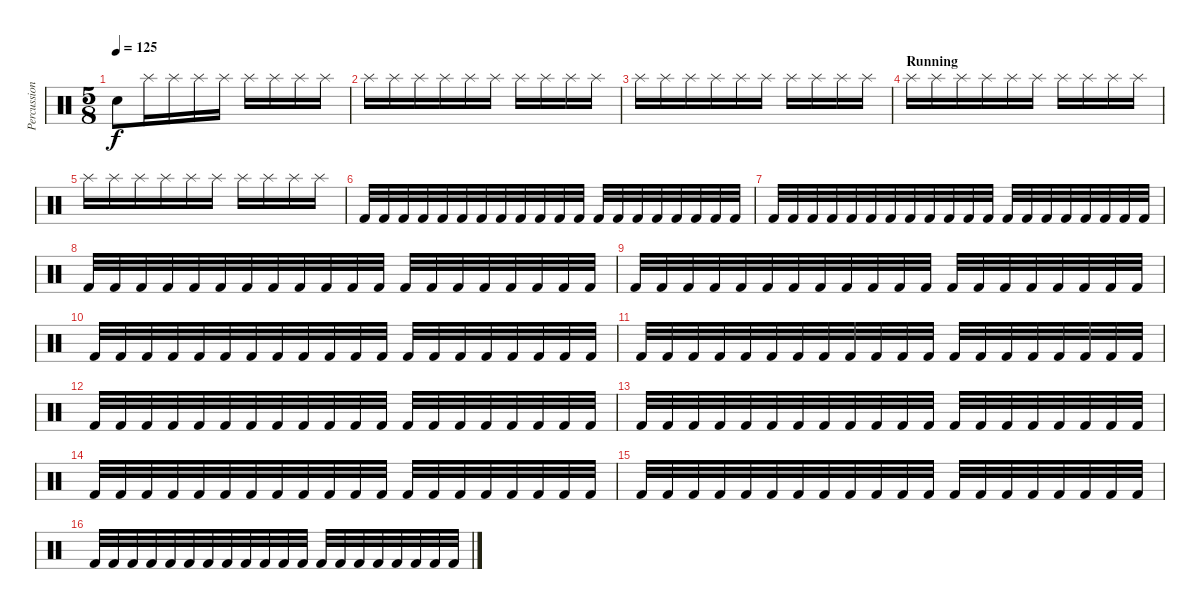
\track ("Percussion" "Percussion") {instrument percussion}
\staff {score}
\articulation defaults
\ts (5 8)
\tempo 125
\clef neutral
\ks c "Snare (hit)"{t}.8{dy f} "Splash (hit)".16 "Splash (hit)".16 "Splash (hit)".16 "Splash (hit)".16 "Splash (hit)".16 "Splash (hit)".16 "Splash (hit)".16 "Splash (hit)".16
|
"Splash (hit)".16 "Splash (hit)".16 "Splash (hit)".16 "Splash (hit)".16 "Splash (hit)".16 "Splash (hit)".16 "Splash (hit)".16 "Splash (hit)".16 "Splash (hit)".16 "Splash (hit)".16 |
"Splash (hit)".16 "Splash (hit)".16 "Splash (hit)".16 "Splash (hit)".16 "Splash (hit)".16 "Splash (hit)".16 "Splash (hit)".16 "Splash (hit)".16 "Splash (hit)".16 "Splash (hit)".16 |
\section ("" "Running")
"Splash (hit)".16 "Splash (hit)".16 "Splash (hit)".16 "Splash (hit)".16 "Splash (hit)".16 "Splash (hit)".16 "Splash (hit)".16 "Splash (hit)".16 "Splash (hit)".16 "Splash (hit)".16 |
"Splash (hit)".16 "Splash (hit)".16 "Splash (hit)".16 "Splash (hit)".16 "Splash (hit)".16 "Splash (hit)".16 "Splash (hit)".16 "Splash (hit)".16 "Splash (hit)".16 "Splash (hit)".16 |
"Kick (hit) 2".32 "Kick (hit) 2".32 "Kick (hit) 2".32 "Kick (hit) 2".32 "Kick (hit) 2".32 "Kick (hit) 2".32 "Kick (hit) 2".32 "Kick (hit) 2".32 "Kick (hit) 2".32 "Kick (hit) 2".32 "Kick (hit) 2".32 "Kick (hit) 2".32 "Kick (hit) 2".32 "Kick (hit) 2".32 "Kick (hit) 2".32 "Kick (hit) 2".32 "Kick (hit) 2".32 "Kick (hit) 2".32 "Kick (hit) 2".32 "Kick (hit) 2".32 |
"Kick (hit) 2".32 "Kick (hit) 2".32 "Kick (hit) 2".32 "Kick (hit) 2".32 "Kick (hit) 2".32 "Kick (hit) 2".32 "Kick (hit) 2".32 "Kick (hit) 2".32 "Kick (hit) 2".32 "Kick (hit) 2".32 "Kick (hit) 2".32 "Kick (hit) 2".32 "Kick (hit) 2".32 "Kick (hit) 2".32 "Kick (hit) 2".32 "Kick (hit) 2".32 "Kick (hit) 2".32 "Kick (hit) 2".32 "Kick (hit) 2".32 "Kick (hit) 2".32 |
"Kick (hit) 2".32 "Kick (hit) 2".32 "Kick (hit) 2".32 "Kick (hit) 2".32 "Kick (hit) 2".32 "Kick (hit) 2".32 "Kick (hit) 2".32 "Kick (hit) 2".32 "Kick (hit) 2".32 "Kick (hit) 2".32 "Kick (hit) 2".32 "Kick (hit) 2".32 "Kick (hit) 2".32 "Kick (hit) 2".32 "Kick (hit) 2".32 "Kick (hit) 2".32 "Kick (hit) 2".32 "Kick (hit) 2".32 "Kick (hit) 2".32 "Kick (hit) 2".32 |
"Kick (hit) 2".32 "Kick (hit) 2".32 "Kick (hit) 2".32 "Kick (hit) 2".32 "Kick (hit) 2".32 "Kick (hit) 2".32 "Kick (hit) 2".32 "Kick (hit) 2".32 "Kick (hit) 2".32 "Kick (hit) 2".32 "Kick (hit) 2".32 "Kick (hit) 2".32 "Kick (hit) 2".32 "Kick (hit) 2".32 "Kick (hit) 2".32 "Kick (hit) 2".32 "Kick (hit) 2".32 "Kick (hit) 2".32 "Kick (hit) 2".32 "Kick (hit) 2".32 |
"Kick (hit) 2".32 "Kick (hit) 2".32 "Kick (hit) 2".32 "Kick (hit) 2".32 "Kick (hit) 2".32 "Kick (hit) 2".32 "Kick (hit) 2".32 "Kick (hit) 2".32 "Kick (hit) 2".32 "Kick (hit) 2".32 "Kick (hit) 2".32 "Kick (hit) 2".32 "Kick (hit) 2".32 "Kick (hit) 2".32 "Kick (hit) 2".32 "Kick (hit) 2".32 "Kick (hit) 2".32 "Kick (hit) 2".32 "Kick (hit) 2".32 "Kick (hit) 2".32 |
"Kick (hit) 2".32 "Kick (hit) 2".32 "Kick (hit) 2".32 "Kick (hit) 2".32 "Kick (hit) 2".32 "Kick (hit) 2".32 "Kick (hit) 2".32 "Kick (hit) 2".32 "Kick (hit) 2".32 "Kick (hit) 2".32 "Kick (hit) 2".32 "Kick (hit) 2".32 "Kick (hit) 2".32 "Kick (hit) 2".32 "Kick (hit) 2".32 "Kick (hit) 2".32 "Kick (hit) 2".32 "Kick (hit) 2".32 "Kick (hit) 2".32 "Kick (hit) 2".32 |
"Kick (hit) 2".32 "Kick (hit) 2".32 "Kick (hit) 2".32 "Kick (hit) 2".32 "Kick (hit) 2".32 "Kick (hit) 2".32 "Kick (hit) 2".32 "Kick (hit) 2".32 "Kick (hit) 2".32 "Kick (hit) 2".32 "Kick (hit) 2".32 "Kick (hit) 2".32 "Kick (hit) 2".32 "Kick (hit) 2".32 "Kick (hit) 2".32 "Kick (hit) 2".32 "Kick (hit) 2".32 "Kick (hit) 2".32 "Kick (hit) 2".32 "Kick (hit) 2".32 |
"Kick (hit) 2".32 "Kick (hit) 2".32 "Kick (hit) 2".32 "Kick (hit) 2".32 "Kick (hit) 2".32 "Kick (hit) 2".32 "Kick (hit) 2".32 "Kick (hit) 2".32 "Kick (hit) 2".32 "Kick (hit) 2".32 "Kick (hit) 2".32 "Kick (hit) 2".32 "Kick (hit) 2".32 "Kick (hit) 2".32 "Kick (hit) 2".32 "Kick (hit) 2".32 "Kick (hit) 2".32 "Kick (hit) 2".32 "Kick (hit) 2".32 "Kick (hit) 2".32 |
"Kick (hit) 2".32 "Kick (hit) 2".32 "Kick (hit) 2".32 "Kick (hit) 2".32 "Kick (hit) 2".32 "Kick (hit) 2".32 "Kick (hit) 2".32 "Kick (hit) 2".32 "Kick (hit) 2".32 "Kick (hit) 2".32 "Kick (hit) 2".32 "Kick (hit) 2".32 "Kick (hit) 2".32 "Kick (hit) 2".32 "Kick (hit) 2".32 "Kick (hit) 2".32 "Kick (hit) 2".32 "Kick (hit) 2".32 "Kick (hit) 2".32 "Kick (hit) 2".32 |
"Kick (hit) 2".32 "Kick (hit) 2".32 "Kick (hit) 2".32 "Kick (hit) 2".32 "Kick (hit) 2".32 "Kick (hit) 2".32 "Kick (hit) 2".32 "Kick (hit) 2".32 "Kick (hit) 2".32 "Kick (hit) 2".32 "Kick (hit) 2".32 "Kick (hit) 2".32 "Kick (hit) 2".32 "Kick (hit) 2".32 "Kick (hit) 2".32 "Kick (hit) 2".32 "Kick (hit) 2".32 "Kick (hit) 2".32 "Kick (hit) 2".32 "Kick (hit) 2".32 |
"Kick (hit) 2".32 "Kick (hit) 2".32 "Kick (hit) 2".32 "Kick (hit) 2".32 "Kick (hit) 2".32 "Kick (hit) 2".32 "Kick (hit) 2".32 "Kick (hit) 2".32 "Kick (hit) 2".32 "Kick (hit) 2".32 "Kick (hit) 2".32 "Kick (hit) 2".32 "Kick (hit) 2".32 "Kick (hit) 2".32 "Kick (hit) 2".32 "Kick (hit) 2".32 "Kick (hit) 2".32 "Kick (hit) 2".32 "Kick (hit) 2".32 "Kick (hit) 2".32
